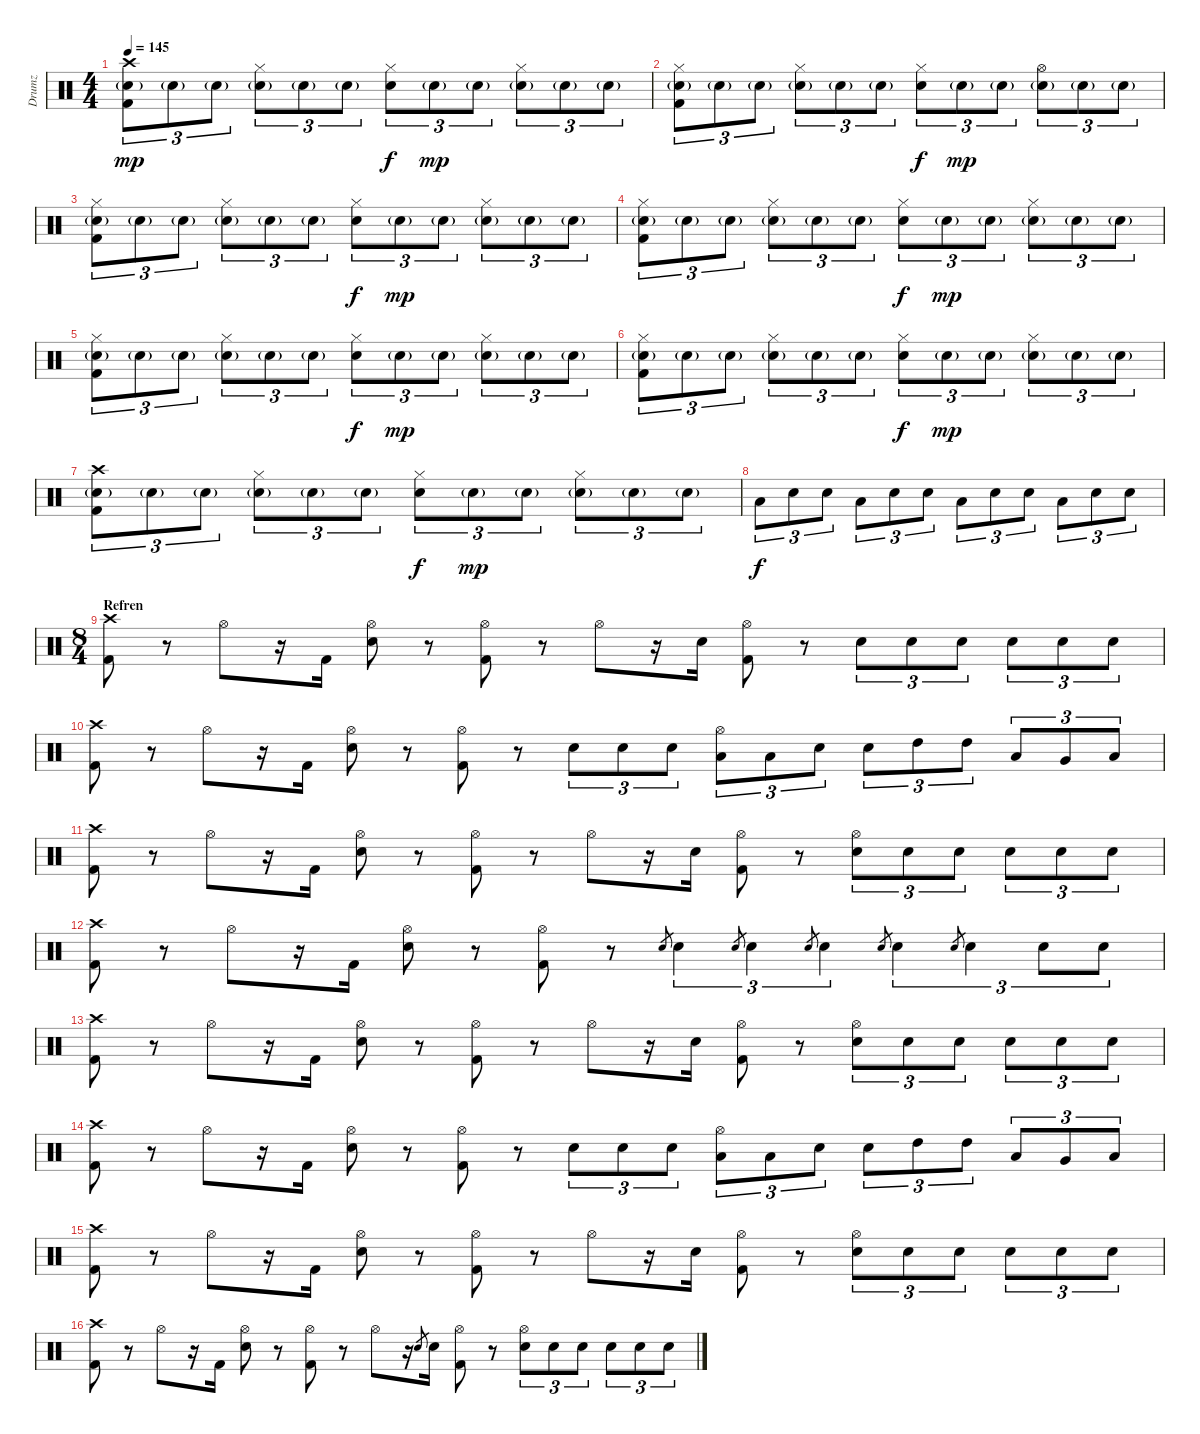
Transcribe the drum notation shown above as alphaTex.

\track ("Drumz" "Drumz") {instrument percussion}
\staff {score}
\articulation defaults
\ts (4 4)
\tempo 145
\clef neutral
\ks c
("Crash high (hit)" "Electric Snare (hit)"{g} "Kick (hit) 2").8{tu (3 2) dy mp} "Electric Snare (hit)"{g}.8{tu (3 2)} "Electric Snare (hit)"{g}.8{tu (3 2)} ("Hi-Hat (closed)" "Electric Snare (hit)"{g}).8{tu (3 2)} "Electric Snare (hit)"{g}.8{tu (3 2)} "Electric Snare (hit)"{g}.8{tu (3 2)} ("Hi-Hat (closed)" "Electric Snare (hit)").8{tu (3 2) dy f} "Electric Snare (hit)"{g}.8{tu (3 2) dy mp} "Electric Snare (hit)"{g}.8{tu (3 2)} ("Hi-Hat (closed)" "Electric Snare (hit)"{g}).8{tu (3 2)} "Electric Snare (hit)"{g}.8{tu (3 2)} "Electric Snare (hit)"{g}.8{tu (3 2)} |
("Hi-Hat (closed)" "Electric Snare (hit)"{g} "Kick (hit) 2").8{tu (3 2)} "Electric Snare (hit)"{g}.8{tu (3 2)} "Electric Snare (hit)"{g}.8{tu (3 2)} ("Hi-Hat (closed)" "Electric Snare (hit)"{g}).8{tu (3 2)} "Electric Snare (hit)"{g}.8{tu (3 2)} "Electric Snare (hit)"{g}.8{tu (3 2)} ("Hi-Hat (closed)" "Electric Snare (hit)").8{tu (3 2) dy f} "Electric Snare (hit)"{g}.8{tu (3 2) dy mp} "Electric Snare (hit)"{g}.8{tu (3 2)} ("Hi-Hat (open)" "Electric Snare (hit)"{g}).8{tu (3 2)} "Electric Snare (hit)"{g}.8{tu (3 2)} "Electric Snare (hit)"{g}.8{tu (3 2)} |
("Hi-Hat (closed)" "Electric Snare (hit)"{g} "Kick (hit) 2").8{tu (3 2)} "Electric Snare (hit)"{g}.8{tu (3 2)} "Electric Snare (hit)"{g}.8{tu (3 2)} ("Hi-Hat (closed)" "Electric Snare (hit)"{g}).8{tu (3 2)} "Electric Snare (hit)"{g}.8{tu (3 2)} "Electric Snare (hit)"{g}.8{tu (3 2)} ("Hi-Hat (closed)" "Electric Snare (hit)").8{tu (3 2) dy f} "Electric Snare (hit)"{g}.8{tu (3 2) dy mp} "Electric Snare (hit)"{g}.8{tu (3 2)} ("Hi-Hat (closed)" "Electric Snare (hit)"{g}).8{tu (3 2)} "Electric Snare (hit)"{g}.8{tu (3 2)} "Electric Snare (hit)"{g}.8{tu (3 2)} |
("Hi-Hat (closed)" "Electric Snare (hit)"{g} "Kick (hit) 2").8{tu (3 2)} "Electric Snare (hit)"{g}.8{tu (3 2)} "Electric Snare (hit)"{g}.8{tu (3 2)} ("Hi-Hat (closed)" "Electric Snare (hit)"{g}).8{tu (3 2)} "Electric Snare (hit)"{g}.8{tu (3 2)} "Electric Snare (hit)"{g}.8{tu (3 2)} ("Hi-Hat (closed)" "Electric Snare (hit)").8{tu (3 2) dy f} "Electric Snare (hit)"{g}.8{tu (3 2) dy mp} "Electric Snare (hit)"{g}.8{tu (3 2)} ("Hi-Hat (closed)" "Electric Snare (hit)"{g}).8{tu (3 2)} "Electric Snare (hit)"{g}.8{tu (3 2)} "Electric Snare (hit)"{g}.8{tu (3 2)} |
("Hi-Hat (closed)" "Electric Snare (hit)"{g} "Kick (hit) 2").8{tu (3 2)} "Electric Snare (hit)"{g}.8{tu (3 2)} "Electric Snare (hit)"{g}.8{tu (3 2)} ("Hi-Hat (closed)" "Electric Snare (hit)"{g}).8{tu (3 2)} "Electric Snare (hit)"{g}.8{tu (3 2)} "Electric Snare (hit)"{g}.8{tu (3 2)} ("Hi-Hat (closed)" "Electric Snare (hit)").8{tu (3 2) dy f} "Electric Snare (hit)"{g}.8{tu (3 2) dy mp} "Electric Snare (hit)"{g}.8{tu (3 2)} ("Hi-Hat (closed)" "Electric Snare (hit)"{g}).8{tu (3 2)} "Electric Snare (hit)"{g}.8{tu (3 2)} "Electric Snare (hit)"{g}.8{tu (3 2)} |
("Hi-Hat (closed)" "Electric Snare (hit)"{g} "Kick (hit) 2").8{tu (3 2)} "Electric Snare (hit)"{g}.8{tu (3 2)} "Electric Snare (hit)"{g}.8{tu (3 2)} ("Hi-Hat (closed)" "Electric Snare (hit)"{g}).8{tu (3 2)} "Electric Snare (hit)"{g}.8{tu (3 2)} "Electric Snare (hit)"{g}.8{tu (3 2)} ("Hi-Hat (closed)" "Electric Snare (hit)").8{tu (3 2) dy f} "Electric Snare (hit)"{g}.8{tu (3 2) dy mp} "Electric Snare (hit)"{g}.8{tu (3 2)} ("Hi-Hat (closed)" "Electric Snare (hit)"{g}).8{tu (3 2)} "Electric Snare (hit)"{g}.8{tu (3 2)} "Electric Snare (hit)"{g}.8{tu (3 2)} |
("Crash high (hit)" "Electric Snare (hit)"{g} "Kick (hit) 2").8{tu (3 2)} "Electric Snare (hit)"{g}.8{tu (3 2)} "Electric Snare (hit)"{g}.8{tu (3 2)} ("Hi-Hat (closed)" "Electric Snare (hit)"{g}).8{tu (3 2)} "Electric Snare (hit)"{g}.8{tu (3 2)} "Electric Snare (hit)"{g}.8{tu (3 2)} ("Hi-Hat (closed)" "Electric Snare (hit)").8{tu (3 2) dy f} "Electric Snare (hit)"{g}.8{tu (3 2) dy mp} "Electric Snare (hit)"{g}.8{tu (3 2)} ("Hi-Hat (closed)" "Electric Snare (hit)"{g}).8{tu (3 2)} "Electric Snare (hit)"{g}.8{tu (3 2)} "Electric Snare (hit)"{g}.8{tu (3 2)} |
"Low Floor Tom (hit)".8{tu (3 2) dy f} "Electric Snare (hit)".8{tu (3 2)} "Electric Snare (hit)".8{tu (3 2)} "Low Floor Tom (hit)".8{tu (3 2)} "Electric Snare (hit)".8{tu (3 2)} "Electric Snare (hit)".8{tu (3 2)} "Low Floor Tom (hit)".8{tu (3 2)} "Electric Snare (hit)".8{tu (3 2)} "Electric Snare (hit)".8{tu (3 2)} "Low Floor Tom (hit)".8{tu (3 2)} "Electric Snare (hit)".8{tu (3 2)} "Electric Snare (hit)".8{tu (3 2)} |
\ts (8 4)
\section ("" "Refren")
("Crash high (hit)" "Kick (hit) 2").8 r.8 "Hi-Hat (open)".8 r.16 "Kick (hit) 2".16 ("Hi-Hat (open)" "Electric Snare (hit)").8 r.8 ("Hi-Hat (open)" "Kick (hit) 2").8 r.8 "Hi-Hat (open)".8 r.16 "Electric Snare (hit)".16 ("Hi-Hat (open)" "Kick (hit) 2").8 r.8 "Electric Snare (hit)".8{tu (3 2)} "Electric Snare (hit)".8{tu (3 2)} "Electric Snare (hit)".8{tu (3 2)} "Electric Snare (hit)".8{tu (3 2)} "Electric Snare (hit)".8{tu (3 2)} "Electric Snare (hit)".8{tu (3 2)} |
("Crash high (hit)" "Kick (hit) 2").8 r.8 "Hi-Hat (open)".8 r.16 "Kick (hit) 2".16 ("Hi-Hat (open)" "Electric Snare (hit)").8 r.8 ("Hi-Hat (open)" "Kick (hit) 2").8 r.8 "Electric Snare (hit)".8{tu (3 2)} "Electric Snare (hit)".8{tu (3 2)} "Electric Snare (hit)".8{tu (3 2)} ("Hi-Hat (open)" "Low Floor Tom (hit)").8{tu (3 2)} "Low Floor Tom (hit)".8{tu (3 2)} "Electric Snare (hit)".8{tu (3 2)} "Electric Snare (hit)".8{tu (3 2)} "High Tom (hit)".8{tu (3 2)} "High Tom (hit)".8{tu (3 2)} "Low Tom (hit)".8{tu (3 2)} "Very Low Tom (hit)".8{tu (3 2)} "Low Floor Tom (hit)".8{tu (3 2)} |
("Crash high (hit)" "Kick (hit) 2").8 r.8 "Hi-Hat (open)".8 r.16 "Kick (hit) 2".16 ("Hi-Hat (open)" "Electric Snare (hit)").8 r.8 ("Hi-Hat (open)" "Kick (hit) 2").8 r.8 "Hi-Hat (open)".8 r.16 "Electric Snare (hit)".16 ("Hi-Hat (open)" "Kick (hit) 2").8 r.8 ("Hi-Hat (open)" "Electric Snare (hit)").8{tu (3 2)} "Electric Snare (hit)".8{tu (3 2)} "Electric Snare (hit)".8{tu (3 2)} "Electric Snare (hit)".8{tu (3 2)} "Electric Snare (hit)".8{tu (3 2)} "Electric Snare (hit)".8{tu (3 2)} |
("Crash high (hit)" "Kick (hit) 2").8 r.8 "Hi-Hat (open)".8 r.16 "Kick (hit) 2".16 ("Hi-Hat (open)" "Electric Snare (hit)").8 r.8 ("Hi-Hat (open)" "Kick (hit) 2").8 r.8 "Electric Snare (hit)".8{gr} "Electric Snare (hit)".4{tu (3 2)} "Electric Snare (hit)".8{gr} "Electric Snare (hit)".4{tu (3 2)} "Electric Snare (hit)".8{gr} "Electric Snare (hit)".4{tu (3 2)} "Electric Snare (hit)".8{gr} "Electric Snare (hit)".4{tu (3 2)} "Electric Snare (hit)".8{gr} "Electric Snare (hit)".4{tu (3 2)} "Electric Snare (hit)".8{tu (3 2)} "Electric Snare (hit)".8{tu (3 2)} |
("Crash high (hit)" "Kick (hit) 2").8 r.8 "Hi-Hat (open)".8 r.16 "Kick (hit) 2".16 ("Hi-Hat (open)" "Electric Snare (hit)").8 r.8 ("Hi-Hat (open)" "Kick (hit) 2").8 r.8 "Hi-Hat (open)".8 r.16 "Electric Snare (hit)".16 ("Hi-Hat (open)" "Kick (hit) 2").8 r.8 ("Hi-Hat (open)" "Electric Snare (hit)").8{tu (3 2)} "Electric Snare (hit)".8{tu (3 2)} "Electric Snare (hit)".8{tu (3 2)} "Electric Snare (hit)".8{tu (3 2)} "Electric Snare (hit)".8{tu (3 2)} "Electric Snare (hit)".8{tu (3 2)} |
("Crash high (hit)" "Kick (hit) 2").8 r.8 "Hi-Hat (open)".8 r.16 "Kick (hit) 2".16 ("Hi-Hat (open)" "Electric Snare (hit)").8 r.8 ("Hi-Hat (open)" "Kick (hit) 2").8 r.8 "Electric Snare (hit)".8{tu (3 2)} "Electric Snare (hit)".8{tu (3 2)} "Electric Snare (hit)".8{tu (3 2)} ("Hi-Hat (open)" "Low Floor Tom (hit)").8{tu (3 2)} "Low Floor Tom (hit)".8{tu (3 2)} "Electric Snare (hit)".8{tu (3 2)} "Electric Snare (hit)".8{tu (3 2)} "High Tom (hit)".8{tu (3 2)} "High Tom (hit)".8{tu (3 2)} "Low Tom (hit)".8{tu (3 2)} "Very Low Tom (hit)".8{tu (3 2)} "Low Floor Tom (hit)".8{tu (3 2)} |
("Crash high (hit)" "Kick (hit) 2").8 r.8 "Hi-Hat (open)".8 r.16 "Kick (hit) 2".16 ("Hi-Hat (open)" "Electric Snare (hit)").8 r.8 ("Hi-Hat (open)" "Kick (hit) 2").8 r.8 "Hi-Hat (open)".8 r.16 "Electric Snare (hit)".16 ("Hi-Hat (open)" "Kick (hit) 2").8 r.8 ("Hi-Hat (open)" "Electric Snare (hit)").8{tu (3 2)} "Electric Snare (hit)".8{tu (3 2)} "Electric Snare (hit)".8{tu (3 2)} "Electric Snare (hit)".8{tu (3 2)} "Electric Snare (hit)".8{tu (3 2)} "Electric Snare (hit)".8{tu (3 2)} |
("Crash high (hit)" "Kick (hit) 2").8 r.8 "Hi-Hat (open)".8 r.16 "Kick (hit) 2".16 ("Hi-Hat (open)" "Electric Snare (hit)").8 r.8 ("Hi-Hat (open)" "Kick (hit) 2").8 r.8 "Hi-Hat (open)".8 r.16 "Electric Snare (hit)".8{gr} "Electric Snare (hit)".16 ("Hi-Hat (open)" "Kick (hit) 2").8 r.8 ("Hi-Hat (open)" "Electric Snare (hit)").8{tu (3 2)} "Electric Snare (hit)".8{tu (3 2)} "Electric Snare (hit)".8{tu (3 2)} "Electric Snare (hit)".8{tu (3 2)} "Electric Snare (hit)".8{tu (3 2)} "Electric Snare (hit)".8{tu (3 2)}
